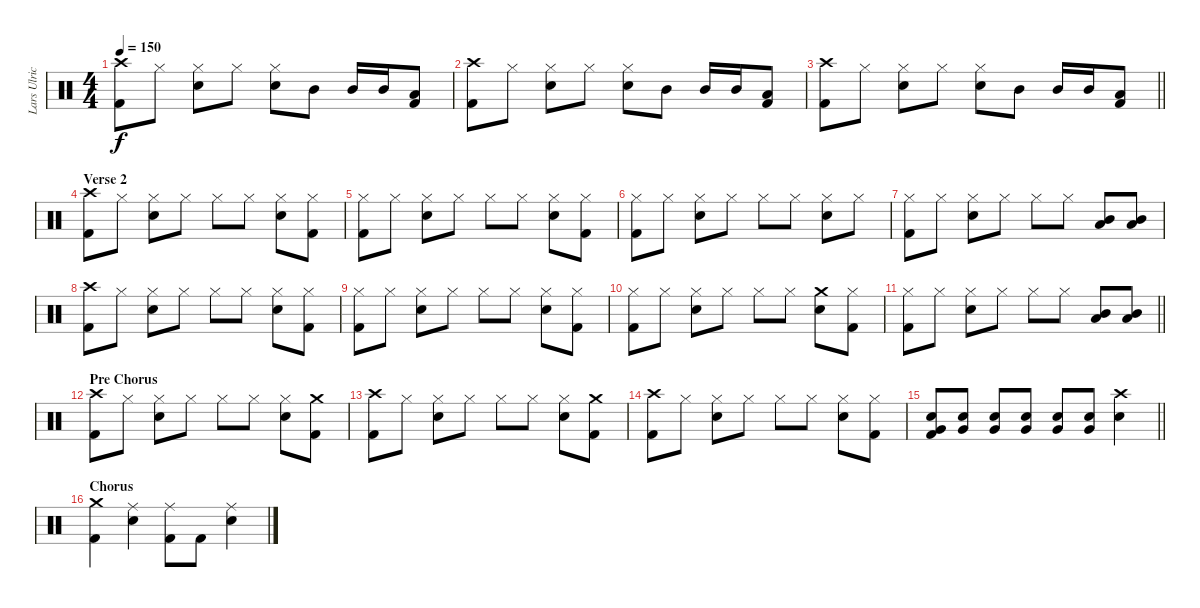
\track ("Lars Ulrich" "Lars Ulric") {instrument percussion}
\staff {score}
\articulation defaults
\ts (4 4)
\tempo 150
\clef neutral
\ks c
("Crash high (hit)" "Kick (hit) 2").8{dy f} "Hi-Hat (closed)".8 ("Hi-Hat (closed)" "Snare (hit) 2").8 "Hi-Hat (closed)".8 ("Hi-Hat (closed)" "Snare (hit) 2").8 "Mid Tom (hit)".8 "Mid Tom (hit)".16 "Mid Tom (hit)".16 ("Low Tom (hit)" "Kick (hit) 2").8 |
("Crash high (hit)" "Kick (hit) 2").8 "Hi-Hat (closed)".8 ("Hi-Hat (closed)" "Snare (hit) 2").8 "Hi-Hat (closed)".8 ("Hi-Hat (closed)" "Snare (hit) 2").8 "Mid Tom (hit)".8 "Mid Tom (hit)".16 "Mid Tom (hit)".16 ("Low Tom (hit)" "Kick (hit) 2").8 |
\barLineRight lightlight
("Crash high (hit)" "Kick (hit) 2").8 "Hi-Hat (closed)".8 ("Hi-Hat (closed)" "Snare (hit) 2").8 "Hi-Hat (closed)".8 ("Hi-Hat (closed)" "Snare (hit) 2").8 "Mid Tom (hit)".8 "Mid Tom (hit)".16 "Mid Tom (hit)".16 ("Low Tom (hit)" "Kick (hit) 2").8 |
\section ("" "Verse 2")
("Crash high (hit)" "Kick (hit) 2").8 "Hi-Hat (closed)".8 ("Hi-Hat (closed)" "Snare (hit) 2").8 "Hi-Hat (closed)".8 "Hi-Hat (closed)".8 "Hi-Hat (closed)".8 ("Hi-Hat (closed)" "Snare (hit) 2").8 ("Hi-Hat (closed)" "Kick (hit) 2").8 |
("Hi-Hat (closed)" "Kick (hit) 2").8 "Hi-Hat (closed)".8 ("Hi-Hat (closed)" "Snare (hit) 2").8 "Hi-Hat (closed)".8 "Hi-Hat (closed)".8 "Hi-Hat (closed)".8 ("Hi-Hat (closed)" "Snare (hit) 2").8 ("Hi-Hat (closed)" "Kick (hit) 2").8 |
("Hi-Hat (closed)" "Kick (hit) 2").8 "Hi-Hat (closed)".8 ("Hi-Hat (closed)" "Snare (hit) 2").8 "Hi-Hat (closed)".8 "Hi-Hat (closed)".8 "Hi-Hat (closed)".8 ("Hi-Hat (closed)" "Snare (hit) 2").8 "Hi-Hat (closed)".8 |
("Hi-Hat (closed)" "Kick (hit) 2").8 "Hi-Hat (closed)".8 ("Hi-Hat (closed)" "Snare (hit) 2").8 "Hi-Hat (closed)".8 "Hi-Hat (closed)".8 "Hi-Hat (closed)".8 ("Low Tom (hit)" "Mid Tom (hit)").8 ("Low Tom (hit)" "Mid Tom (hit)").8 |
("Crash high (hit)" "Kick (hit) 2").8 "Hi-Hat (closed)".8 ("Hi-Hat (closed)" "Snare (hit) 2").8 "Hi-Hat (closed)".8 "Hi-Hat (closed)".8 "Hi-Hat (closed)".8 ("Hi-Hat (closed)" "Snare (hit) 2").8 ("Hi-Hat (closed)" "Kick (hit) 2").8 |
("Hi-Hat (closed)" "Kick (hit) 2").8 "Hi-Hat (closed)".8 ("Hi-Hat (closed)" "Snare (hit) 2").8 "Hi-Hat (closed)".8 "Hi-Hat (closed)".8 "Hi-Hat (closed)".8 ("Hi-Hat (closed)" "Snare (hit) 2").8 ("Hi-Hat (closed)" "Kick (hit) 2").8 |
("Hi-Hat (closed)" "Kick (hit) 2").8 "Hi-Hat (closed)".8 ("Hi-Hat (closed)" "Snare (hit) 2").8 "Hi-Hat (closed)".8 "Hi-Hat (closed)".8 "Hi-Hat (closed)".8 ("Crash medium (hit)" "Snare (hit) 2").8 ("Hi-Hat (closed)" "Kick (hit) 2").8 |
\barLineRight lightlight
("Hi-Hat (closed)" "Kick (hit) 2").8 "Hi-Hat (closed)".8 ("Hi-Hat (closed)" "Snare (hit) 2").8 "Hi-Hat (closed)".8 "Hi-Hat (closed)".8 "Hi-Hat (closed)".8 ("Low Tom (hit)" "Mid Tom (hit)").8 ("Low Tom (hit)" "Mid Tom (hit)").8 |
\section ("" "Pre Chorus")
("Crash high (hit)" "Kick (hit) 2").8 "Hi-Hat (closed)".8 ("Hi-Hat (closed)" "Snare (hit) 2").8 "Hi-Hat (closed)".8 "Hi-Hat (closed)".8 "Hi-Hat (closed)".8 ("Hi-Hat (closed)" "Snare (hit) 2").8 ("Crash medium (hit)" "Kick (hit) 2").8 |
("Crash high (hit)" "Kick (hit) 2").8 "Hi-Hat (closed)".8 ("Hi-Hat (closed)" "Snare (hit) 2").8 "Hi-Hat (closed)".8 "Hi-Hat (closed)".8 "Hi-Hat (closed)".8 ("Hi-Hat (closed)" "Snare (hit) 2").8 ("Crash medium (hit)" "Kick (hit) 2").8 |
("Crash high (hit)" "Kick (hit) 2").8 "Hi-Hat (closed)".8 ("Hi-Hat (closed)" "Snare (hit) 2").8 "Hi-Hat (closed)".8 "Hi-Hat (closed)".8 "Hi-Hat (closed)".8 ("Hi-Hat (closed)" "Snare (hit) 2").8 ("Hi-Hat (closed)" "Kick (hit) 2").8 |
\barLineRight lightlight
("Very Low Tom (hit)" "Snare (hit) 2" "Kick (hit) 2").8 ("Very Low Tom (hit)" "Snare (hit) 2").8 ("Very Low Tom (hit)" "Snare (hit) 2").8 ("Very Low Tom (hit)" "Snare (hit) 2").8 ("Very Low Tom (hit)" "Snare (hit) 2").8 ("Very Low Tom (hit)" "Snare (hit) 2").8 ("Crash high (hit)" "Snare (hit) 2").4 |
\section ("" "Chorus")
("Crash medium (hit)" "Kick (hit) 2").4 ("Ride (middle)" "Snare (hit) 2").4 ("Ride (middle)" "Kick (hit) 2").8 "Kick (hit) 2".8 ("Ride (middle)" "Snare (hit) 2").4
